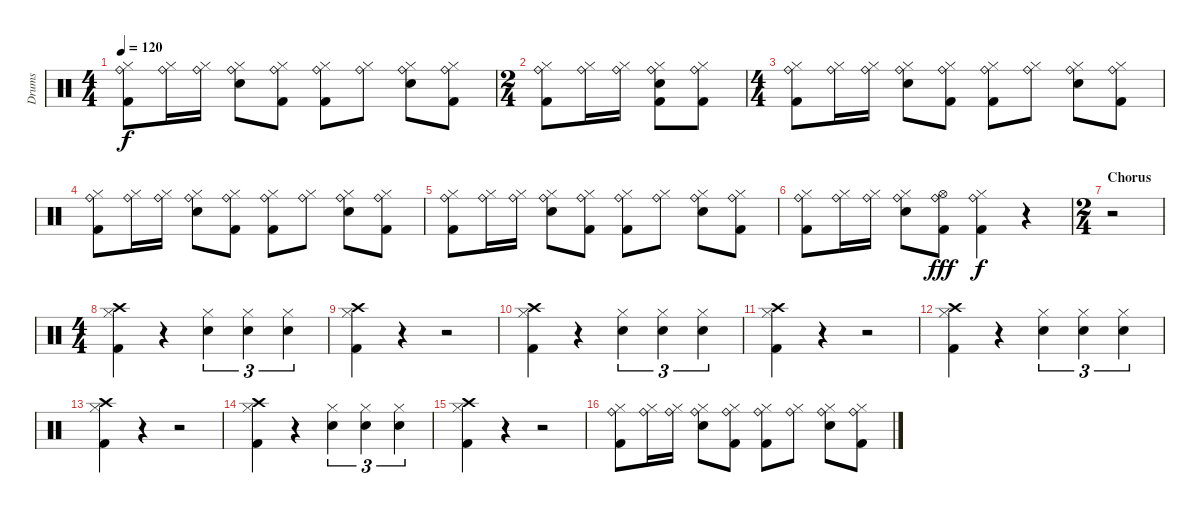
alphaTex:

\track ("Drums" "Drums") {instrument percussion}
\staff {score}
\articulation defaults
\ts (4 4)
\tempo 120
\clef neutral
\ks c
("Ride (bell)" "Hi-Hat (closed)" "Kick (hit) 2").8{dy f} ("Ride (bell)" "Hi-Hat (closed)").16 ("Ride (bell)" "Hi-Hat (closed)").16 ("Ride (bell)" "Hi-Hat (closed)" "Snare (hit) 2").8 ("Ride (bell)" "Hi-Hat (closed)" "Kick (hit) 2").8 ("Ride (bell)" "Hi-Hat (closed)" "Kick (hit) 2").8 ("Ride (bell)" "Hi-Hat (closed)").8 ("Ride (bell)" "Hi-Hat (closed)" "Snare (hit) 2").8 ("Ride (bell)" "Hi-Hat (closed)" "Kick (hit) 2").8 |
\ts (2 4)
("Ride (bell)" "Hi-Hat (closed)" "Kick (hit) 2").8 ("Ride (bell)" "Hi-Hat (closed)").16 ("Ride (bell)" "Hi-Hat (closed)").16 ("Ride (bell)" "Hi-Hat (closed)" "Snare (hit) 2" "Kick (hit) 2").8 ("Ride (bell)" "Hi-Hat (closed)" "Kick (hit) 2").8 |
\ts (4 4)
("Ride (bell)" "Hi-Hat (closed)" "Kick (hit) 2").8 ("Ride (bell)" "Hi-Hat (closed)").16 ("Ride (bell)" "Hi-Hat (closed)").16 ("Ride (bell)" "Hi-Hat (closed)" "Snare (hit) 2").8 ("Ride (bell)" "Hi-Hat (closed)" "Kick (hit) 2").8 ("Ride (bell)" "Hi-Hat (closed)" "Kick (hit) 2").8 ("Ride (bell)" "Hi-Hat (closed)").8 ("Ride (bell)" "Hi-Hat (closed)" "Snare (hit) 2").8 ("Ride (bell)" "Hi-Hat (closed)" "Kick (hit) 2").8 |
("Ride (bell)" "Hi-Hat (closed)" "Kick (hit) 2").8 ("Ride (bell)" "Hi-Hat (closed)").16 ("Ride (bell)" "Hi-Hat (closed)").16 ("Ride (bell)" "Hi-Hat (closed)" "Snare (hit) 2").8 ("Ride (bell)" "Hi-Hat (closed)" "Kick (hit) 2").8 ("Ride (bell)" "Hi-Hat (closed)" "Kick (hit) 2").8 ("Ride (bell)" "Hi-Hat (closed)").8 ("Ride (bell)" "Hi-Hat (closed)" "Snare (hit) 2").8 ("Ride (bell)" "Hi-Hat (closed)" "Kick (hit) 2").8 |
("Ride (bell)" "Hi-Hat (closed)" "Kick (hit) 2").8 ("Ride (bell)" "Hi-Hat (closed)").16 ("Ride (bell)" "Hi-Hat (closed)").16 ("Ride (bell)" "Hi-Hat (closed)" "Snare (hit) 2").8 ("Ride (bell)" "Hi-Hat (closed)" "Kick (hit) 2").8 ("Ride (bell)" "Hi-Hat (closed)" "Kick (hit) 2").8 ("Ride (bell)" "Hi-Hat (closed)").8 ("Ride (bell)" "Hi-Hat (closed)" "Snare (hit) 2").8 ("Ride (bell)" "Hi-Hat (closed)" "Kick (hit) 2").8 |
("Ride (bell)" "Hi-Hat (closed)" "Kick (hit) 2").8 ("Ride (bell)" "Hi-Hat (closed)").16 ("Ride (bell)" "Hi-Hat (closed)").16 ("Ride (bell)" "Hi-Hat (closed)" "Snare (hit) 2").8 ("Ride (bell)" "Hi-Hat (open)" "Kick (hit) 2").8{dy fff} ("Ride (bell)" "Hi-Hat (closed)" "Kick (hit) 2").4{dy f} r.4 |
\ts (2 4)
\section ("" "Chorus")
r.2 |
\ts (4 4)
("Crash high (hit)" "Hi-Hat (closed)" "Kick (hit) 2").4 r.4 ("Hi-Hat (closed)" "Snare (hit) 2").4{tu (3 2)} ("Hi-Hat (closed)" "Snare (hit) 2").4{tu (3 2)} ("Hi-Hat (closed)" "Snare (hit) 2").4{tu (3 2)} |
("Crash high (hit)" "Hi-Hat (closed)" "Kick (hit) 2").4 r.4 r.2 |
("Crash high (hit)" "Hi-Hat (closed)" "Kick (hit) 2").4 r.4 ("Hi-Hat (closed)" "Snare (hit) 2").4{tu (3 2)} ("Hi-Hat (closed)" "Snare (hit) 2").4{tu (3 2)} ("Hi-Hat (closed)" "Snare (hit) 2").4{tu (3 2)} |
("Crash high (hit)" "Hi-Hat (closed)" "Kick (hit) 2").4 r.4 r.2 |
("Crash high (hit)" "Hi-Hat (closed)" "Kick (hit) 2").4 r.4 ("Hi-Hat (closed)" "Snare (hit) 2").4{tu (3 2)} ("Hi-Hat (closed)" "Snare (hit) 2").4{tu (3 2)} ("Hi-Hat (closed)" "Snare (hit) 2").4{tu (3 2)} |
("Crash high (hit)" "Hi-Hat (closed)" "Kick (hit) 2").4 r.4 r.2 |
("Crash high (hit)" "Hi-Hat (closed)" "Kick (hit) 2").4 r.4 ("Hi-Hat (closed)" "Snare (hit) 2").4{tu (3 2)} ("Hi-Hat (closed)" "Snare (hit) 2").4{tu (3 2)} ("Hi-Hat (closed)" "Snare (hit) 2").4{tu (3 2)} |
("Crash high (hit)" "Hi-Hat (closed)" "Kick (hit) 2").4 r.4 r.2 |
("Ride (bell)" "Hi-Hat (closed)" "Kick (hit) 2").8 ("Ride (bell)" "Hi-Hat (closed)").16 ("Ride (bell)" "Hi-Hat (closed)").16 ("Ride (bell)" "Hi-Hat (closed)" "Snare (hit) 2").8 ("Ride (bell)" "Hi-Hat (closed)" "Kick (hit) 2").8 ("Ride (bell)" "Hi-Hat (closed)" "Kick (hit) 2").8 ("Ride (bell)" "Hi-Hat (closed)").8 ("Ride (bell)" "Hi-Hat (closed)" "Snare (hit) 2").8 ("Ride (bell)" "Hi-Hat (closed)" "Kick (hit) 2").8
